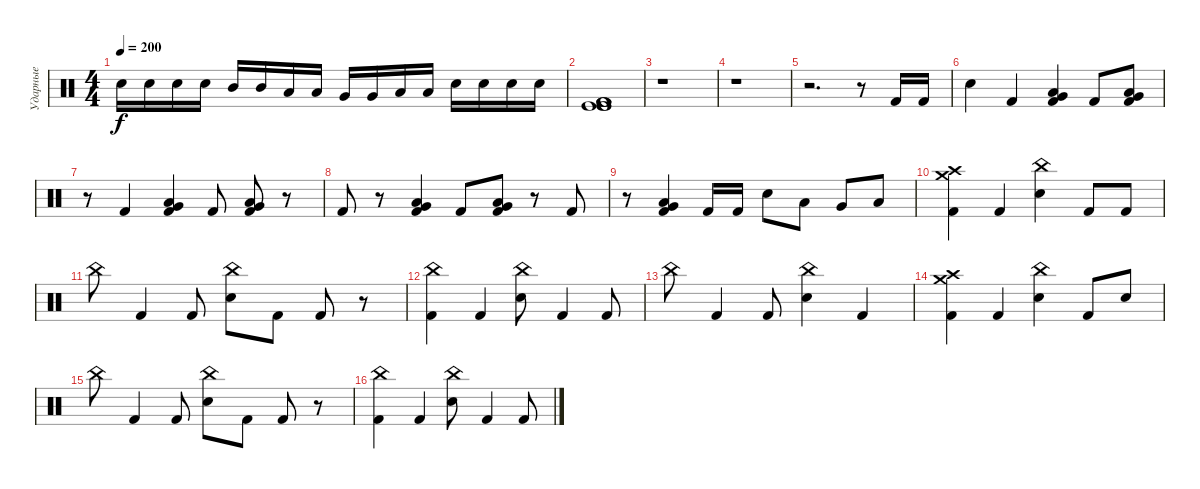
\track ("Ударные" "Ударные") {instrument percussion}
\staff {score}
\articulation defaults
\ts (4 4)
\tempo 200
\clef neutral
\ks c "Snare (hit) 2".16{dy f} "Snare (hit) 2".16 "Snare (hit) 2".16 "Snare (hit) 2".16 "Mid Tom (hit)".16 "Mid Tom (hit)".16 "Low Tom (hit)".16 "Low Tom (hit)".16 "Very Low Tom (hit)".16 "Very Low Tom (hit)".16 "Low Floor Tom (hit)".16 "Low Floor Tom (hit)".16 "Snare (hit) 2".16 "Snare (hit) 2".16 "Snare (hit) 2".16 "Snare (hit) 2".16
|
("Kick (hit) 2" "Kick (hit)" "Kick (hit) 2" "Kick (hit)" "Kick (hit) 2" "Kick (hit)").1 |
r.1 |
r.1 |
r.2{d} r.8 "Kick (hit) 2".16 "Kick (hit) 2".16 |
"Snare (hit) 2".4 "Kick (hit) 2".4 ("Very Low Tom (hit)" "Low Floor Tom (hit)" "Kick (hit) 2").4 "Kick (hit) 2".8 ("Very Low Tom (hit)" "Low Floor Tom (hit)" "Kick (hit) 2").8 |
r.8 "Kick (hit) 2".4 ("Very Low Tom (hit)" "Low Floor Tom (hit)" "Kick (hit) 2").4 "Kick (hit) 2".8 ("Very Low Tom (hit)" "Low Floor Tom (hit)" "Kick (hit) 2").8 r.8 |
"Kick (hit) 2".8 r.8 ("Very Low Tom (hit)" "Low Floor Tom (hit)" "Kick (hit) 2").4 "Kick (hit) 2".8 ("Very Low Tom (hit)" "Low Floor Tom (hit)" "Kick (hit) 2").8 r.8 "Kick (hit) 2".8 |
r.8 ("Very Low Tom (hit)" "Low Floor Tom (hit)" "Kick (hit) 2").4 "Kick (hit) 2".16 "Kick (hit) 2".16 "Snare (hit) 2".8 "Low Tom (hit)".8 "Very Low Tom (hit)".8 "Low Floor Tom (hit)".8 |
("Crash high (hit)" "Crash medium (hit)" "Kick (hit) 2").4 "Kick (hit) 2".4 ("China (hit)" "Snare (hit) 2").4 "Kick (hit) 2".8 "Kick (hit) 2".8 |
"China (hit)".8 "Kick (hit) 2".4 "Kick (hit) 2".8 ("China (hit)" "Snare (hit) 2").8 "Kick (hit) 2".8 "Kick (hit) 2".8 r.8 |
("China (hit)" "Kick (hit) 2").4 "Kick (hit) 2".4 ("China (hit)" "Snare (hit) 2").8 "Kick (hit) 2".4 "Kick (hit) 2".8 |
"China (hit)".8 "Kick (hit) 2".4 "Kick (hit) 2".8 ("China (hit)" "Snare (hit) 2").4 "Kick (hit) 2".4 |
("Crash high (hit)" "Crash medium (hit)" "Kick (hit) 2").4 "Kick (hit) 2".4 ("China (hit)" "Snare (hit) 2").4 "Kick (hit) 2".8 "Snare (hit) 2".8 |
"China (hit)".8 "Kick (hit) 2".4 "Kick (hit) 2".8 ("China (hit)" "Snare (hit) 2").8 "Kick (hit) 2".8 "Kick (hit) 2".8 r.8 |
("China (hit)" "Kick (hit) 2").4 "Kick (hit) 2".4 ("China (hit)" "Snare (hit) 2").8 "Kick (hit) 2".4 "Kick (hit) 2".8
